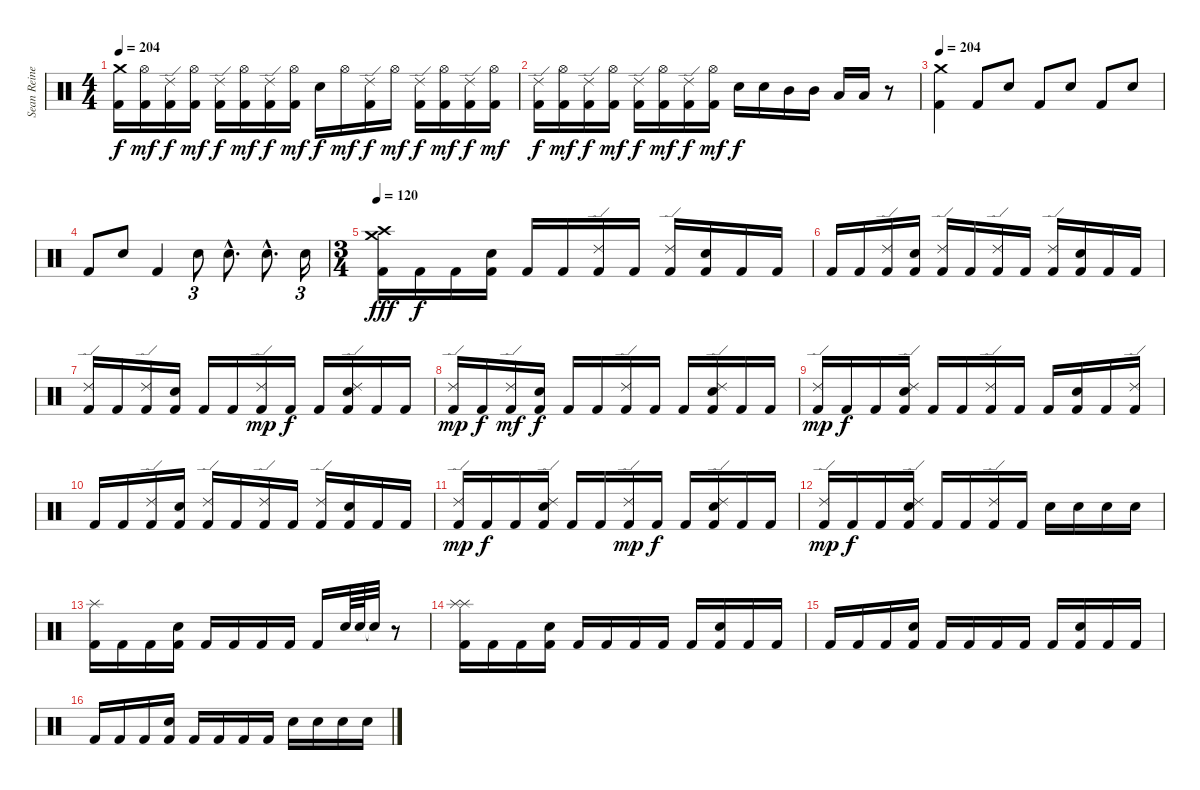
\track ("Sean Reinert" "Sean Reine") {instrument percussion}
\staff {score}
\articulation defaults
\ts (4 4)
\tempo 204
\clef neutral
\ks c
("Crash medium (hit)" "Kick (hit) 2").16{dy f} ("Hi-Hat (open)" "Kick (hit) 2").16{dy mf} ("Ride (edge) 2" "Kick (hit) 2").16{dy f} ("Hi-Hat (open)" "Kick (hit) 2").16{dy mf} ("Ride (edge) 2" "Kick (hit) 2").16{dy f} ("Hi-Hat (open)" "Kick (hit) 2").16{dy mf} ("Ride (edge) 2" "Kick (hit) 2").16{dy f} ("Hi-Hat (open)" "Kick (hit) 2").16{dy mf} "Snare (hit) 2".16{dy f} "Hi-Hat (open)".16{dy mf} ("Ride (edge) 2" "Kick (hit) 2").16{dy f} "Hi-Hat (open)".16{dy mf} ("Ride (edge) 2" "Kick (hit) 2").16{dy f} ("Hi-Hat (open)" "Kick (hit) 2").16{dy mf} ("Ride (edge) 2" "Kick (hit) 2").16{dy f} ("Hi-Hat (open)" "Kick (hit) 2").16{dy mf} |
("Ride (edge) 2" "Kick (hit) 2").16{dy f} ("Hi-Hat (open)" "Kick (hit) 2").16{dy mf} ("Ride (edge) 2" "Kick (hit) 2").16{dy f} ("Hi-Hat (open)" "Kick (hit) 2").16{dy mf} ("Ride (edge) 2" "Kick (hit) 2").16{dy f} ("Hi-Hat (open)" "Kick (hit) 2").16{dy mf} ("Ride (edge) 2" "Kick (hit) 2").16{dy f} ("Hi-Hat (open)" "Kick (hit) 2").16{dy mf} "Snare (hit) 2".16{dy f} "Snare (hit) 2".16 "Mid Tom (hit)".16 "Mid Tom (hit)".16 "Low Tom (hit)".16 "Low Tom (hit)".16 r.8 |
\tempo 204
("Crash medium (hit)" "Kick (hit) 2").4 "Kick (hit) 2".8 "Snare (hit) 2".8 "Kick (hit) 2".8 "Snare (hit) 2".8 "Kick (hit) 2".8 "Snare (hit) 2".8 |
"Kick (hit) 2".8 "Snare (hit) 2".8 "Kick (hit) 2".4 "Snare (hit) 2".8{tu (3 2)} "Snare (hit) 2"{hac}.8{d} "Snare (hit) 2"{hac}.8{d} "Snare (hit) 2".16{tu (3 2)} |
\ts (3 4)
\tempo 120
("Crash medium (hit)" "Crash high (hit)" "Kick (hit) 2").16{dy fff} "Kick (hit) 2".16{dy f} "Kick (hit) 2".16 ("Snare (hit) 2" "Kick (hit) 2").16 "Kick (hit) 2".16 "Kick (hit) 2".16 ("Ride (edge) 2" "Kick (hit) 2").16 "Kick (hit) 2".16 ("Ride (edge) 2" "Kick (hit) 2").16 ("Snare (hit) 2" "Kick (hit) 2").16 "Kick (hit) 2".16 "Kick (hit) 2".16 |
"Kick (hit) 2".16 "Kick (hit) 2".16 ("Ride (edge) 2" "Kick (hit) 2").16 ("Snare (hit) 2" "Kick (hit) 2").16 ("Ride (edge) 2" "Kick (hit) 2").16 "Kick (hit) 2".16 ("Ride (edge) 2" "Kick (hit) 2").16 "Kick (hit) 2".16 ("Ride (edge) 2" "Kick (hit) 2").16 ("Snare (hit) 2" "Kick (hit) 2").16 "Kick (hit) 2".16 "Kick (hit) 2".16 |
("Ride (edge) 2" "Kick (hit) 2").16 "Kick (hit) 2".16 ("Ride (edge) 2" "Kick (hit) 2").16 ("Snare (hit) 2" "Kick (hit) 2").16 "Kick (hit) 2".16 "Kick (hit) 2".16 ("Ride (edge) 2" "Kick (hit) 2").16{dy mp} "Kick (hit) 2".16{dy f} "Kick (hit) 2".16 ("Ride (edge) 2" "Snare (hit) 2" "Kick (hit) 2").16 "Kick (hit) 2".16 "Kick (hit) 2".16 |
("Ride (edge) 2" "Kick (hit) 2").16{dy mp} "Kick (hit) 2".16{dy f} ("Ride (edge) 2" "Kick (hit) 2").16{dy mf} ("Snare (hit) 2" "Kick (hit) 2").16{dy f} "Kick (hit) 2".16 "Kick (hit) 2".16 ("Ride (edge) 2" "Kick (hit) 2").16 "Kick (hit) 2".16 "Kick (hit) 2".16 ("Ride (edge) 2" "Snare (hit) 2" "Kick (hit) 2").16 "Kick (hit) 2".16 "Kick (hit) 2".16 |
("Ride (edge) 2" "Kick (hit) 2").16{dy mp} "Kick (hit) 2".16{dy f} "Kick (hit) 2".16 ("Ride (edge) 2" "Snare (hit) 2" "Kick (hit) 2").16 "Kick (hit) 2".16 "Kick (hit) 2".16 ("Ride (edge) 2" "Kick (hit) 2").16 "Kick (hit) 2".16 "Kick (hit) 2".16 ("Snare (hit) 2" "Kick (hit) 2").16 "Kick (hit) 2".16 ("Ride (edge) 2" "Kick (hit) 2").16 |
"Kick (hit) 2".16 "Kick (hit) 2".16 ("Ride (edge) 2" "Kick (hit) 2").16 ("Snare (hit) 2" "Kick (hit) 2").16 ("Ride (edge) 2" "Kick (hit) 2").16 "Kick (hit) 2".16 ("Ride (edge) 2" "Kick (hit) 2").16 "Kick (hit) 2".16 ("Ride (edge) 2" "Kick (hit) 2").16 ("Snare (hit) 2" "Kick (hit) 2").16 "Kick (hit) 2".16 "Kick (hit) 2".16 |
("Ride (edge) 2" "Kick (hit) 2").16{dy mp} "Kick (hit) 2".16{dy f} "Kick (hit) 2".16 ("Ride (edge) 2" "Snare (hit) 2" "Kick (hit) 2").16 "Kick (hit) 2".16 "Kick (hit) 2".16 ("Ride (edge) 2" "Kick (hit) 2").16{dy mp} "Kick (hit) 2".16{dy f} "Kick (hit) 2".16 ("Ride (edge) 2" "Snare (hit) 2" "Kick (hit) 2").16 "Kick (hit) 2".16 "Kick (hit) 2".16 |
("Ride (edge) 2" "Kick (hit) 2").16{dy mp} "Kick (hit) 2".16{dy f} "Kick (hit) 2".16 ("Ride (edge) 2" "Snare (hit) 2" "Kick (hit) 2").16 "Kick (hit) 2".16 "Kick (hit) 2".16 ("Ride (edge) 2" "Kick (hit) 2").16 "Kick (hit) 2".16 "Snare (hit) 2".16 "Snare (hit) 2".16 "Snare (hit) 2".16 "Snare (hit) 2".16 |
("Splash (hit)" "Kick (hit) 2").16 "Kick (hit) 2".16 "Kick (hit) 2".16 ("Snare (hit) 2" "Kick (hit) 2").16 "Kick (hit) 2".16 "Kick (hit) 2".16 "Kick (hit) 2".16 "Kick (hit) 2".16 "Kick (hit) 2".16 "Snare (hit) 2".64 "Snare (hit) 2".64 "Snare (hit)"{t}.32 r.8 |
("Splash (hit)" "Splash (hit)" "Kick (hit) 2").16 "Kick (hit) 2".16 "Kick (hit) 2".16 ("Snare (hit) 2" "Kick (hit) 2").16 "Kick (hit) 2".16 "Kick (hit) 2".16 "Kick (hit) 2".16 "Kick (hit) 2".16 "Kick (hit) 2".16 ("Snare (hit) 2" "Kick (hit) 2").16 "Kick (hit) 2".16 "Kick (hit) 2".16 |
"Kick (hit) 2".16 "Kick (hit) 2".16 "Kick (hit) 2".16 ("Snare (hit) 2" "Kick (hit) 2").16 "Kick (hit) 2".16 "Kick (hit) 2".16 "Kick (hit) 2".16 "Kick (hit) 2".16 "Kick (hit) 2".16 ("Snare (hit) 2" "Kick (hit) 2").16 "Kick (hit) 2".16 "Kick (hit) 2".16 |
"Kick (hit) 2".16 "Kick (hit) 2".16 "Kick (hit) 2".16 ("Snare (hit) 2" "Kick (hit) 2").16 "Kick (hit) 2".16 "Kick (hit) 2".16 "Kick (hit) 2".16 "Kick (hit) 2".16 "Snare (hit) 2".16 "Snare (hit) 2".16 "Snare (hit) 2".16 "Snare (hit) 2".16
